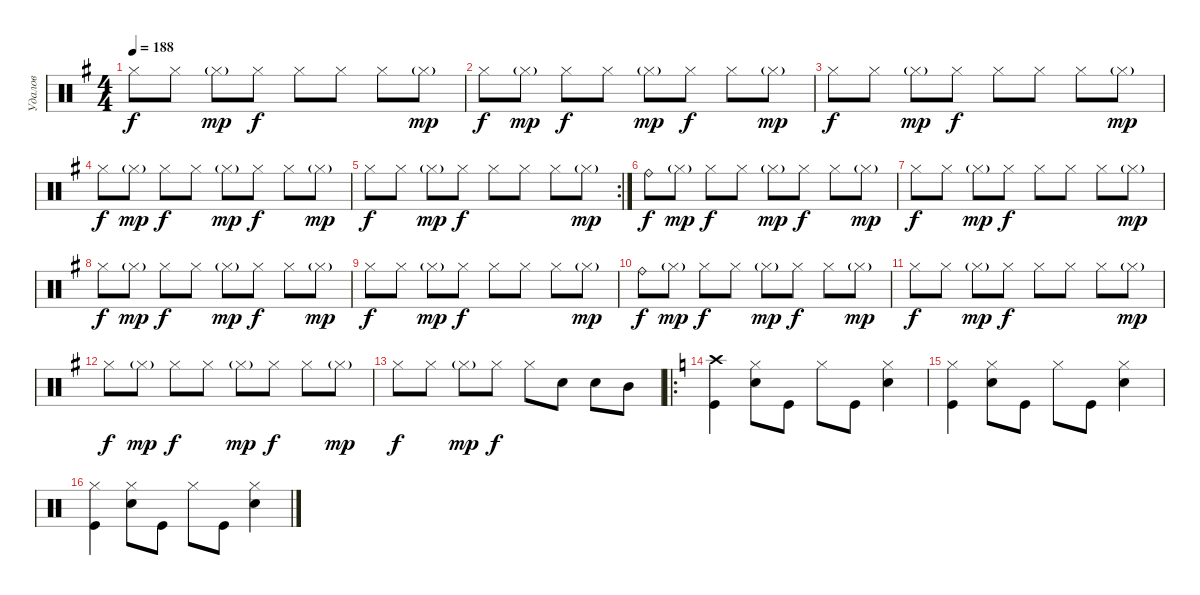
\track ("Удалов" "Удалов") {instrument percussion}
\staff {score}
\articulation defaults
\ts (4 4)
\tempo 188
\clef neutral
\ks g "Hi-Hat (closed)".8{dy f} "Hi-Hat (closed)".8 "Hi-Hat (closed)"{g}.8{dy mp} "Hi-Hat (closed)".8{dy f} "Hi-Hat (closed)".8 "Hi-Hat (closed)".8 "Hi-Hat (closed)".8 "Hi-Hat (closed)"{g}.8{dy mp}
|
"Hi-Hat (closed)".8{dy f} "Hi-Hat (closed)"{g}.8{dy mp} "Hi-Hat (closed)".8{dy f} "Hi-Hat (closed)".8 "Hi-Hat (closed)"{g}.8{dy mp} "Hi-Hat (closed)".8{dy f} "Hi-Hat (closed)".8 "Hi-Hat (closed)"{g}.8{dy mp} |
"Hi-Hat (closed)".8{dy f} "Hi-Hat (closed)".8 "Hi-Hat (closed)"{g}.8{dy mp} "Hi-Hat (closed)".8{dy f} "Hi-Hat (closed)".8 "Hi-Hat (closed)".8 "Hi-Hat (closed)".8 "Hi-Hat (closed)"{g}.8{dy mp} |
"Hi-Hat (closed)".8{dy f} "Hi-Hat (closed)"{g}.8{dy mp} "Hi-Hat (closed)".8{dy f} "Hi-Hat (closed)".8 "Hi-Hat (closed)"{g}.8{dy mp} "Hi-Hat (closed)".8{dy f} "Hi-Hat (closed)".8 "Hi-Hat (closed)"{g}.8{dy mp} |
\rc 2 "Hi-Hat (closed)".8{dy f} "Hi-Hat (closed)".8 "Hi-Hat (closed)"{g}.8{dy mp} "Hi-Hat (closed)".8{dy f} "Hi-Hat (closed)".8 "Hi-Hat (closed)".8 "Hi-Hat (closed)".8 "Hi-Hat (closed)"{g}.8{dy mp}
|
"Ride (bell)".8{dy f} "Hi-Hat (closed)"{g}.8{dy mp} "Hi-Hat (closed)".8{dy f} "Hi-Hat (closed)".8 "Hi-Hat (closed)"{g}.8{dy mp} "Hi-Hat (closed)".8{dy f} "Hi-Hat (closed)".8 "Hi-Hat (closed)"{g}.8{dy mp} |
"Hi-Hat (closed)".8{dy f} "Hi-Hat (closed)".8 "Hi-Hat (closed)"{g}.8{dy mp} "Hi-Hat (closed)".8{dy f} "Hi-Hat (closed)".8 "Hi-Hat (closed)".8 "Hi-Hat (closed)".8 "Hi-Hat (closed)"{g}.8{dy mp} |
"Hi-Hat (closed)".8{dy f} "Hi-Hat (closed)"{g}.8{dy mp} "Hi-Hat (closed)".8{dy f} "Hi-Hat (closed)".8 "Hi-Hat (closed)"{g}.8{dy mp} "Hi-Hat (closed)".8{dy f} "Hi-Hat (closed)".8 "Hi-Hat (closed)"{g}.8{dy mp} |
"Hi-Hat (closed)".8{dy f} "Hi-Hat (closed)".8 "Hi-Hat (closed)"{g}.8{dy mp} "Hi-Hat (closed)".8{dy f} "Hi-Hat (closed)".8 "Hi-Hat (closed)".8 "Hi-Hat (closed)".8 "Hi-Hat (closed)"{g}.8{dy mp} |
"Ride (bell)".8{dy f} "Hi-Hat (closed)"{g}.8{dy mp} "Hi-Hat (closed)".8{dy f} "Hi-Hat (closed)".8 "Hi-Hat (closed)"{g}.8{dy mp} "Hi-Hat (closed)".8{dy f} "Hi-Hat (closed)".8 "Hi-Hat (closed)"{g}.8{dy mp} |
"Hi-Hat (closed)".8{dy f} "Hi-Hat (closed)".8 "Hi-Hat (closed)"{g}.8{dy mp} "Hi-Hat (closed)".8{dy f} "Hi-Hat (closed)".8 "Hi-Hat (closed)".8 "Hi-Hat (closed)".8 "Hi-Hat (closed)"{g}.8{dy mp} |
"Hi-Hat (closed)".8{dy f} "Hi-Hat (closed)"{g}.8{dy mp} "Hi-Hat (closed)".8{dy f} "Hi-Hat (closed)".8 "Hi-Hat (closed)"{g}.8{dy mp} "Hi-Hat (closed)".8{dy f} "Hi-Hat (closed)".8 "Hi-Hat (closed)"{g}.8{dy mp} |
"Hi-Hat (closed)".8{dy f} "Hi-Hat (closed)".8 "Hi-Hat (closed)"{g}.8{dy mp} "Hi-Hat (closed)".8{dy f} "Hi-Hat (closed)".8 "Electric Snare (hit)".8 "Electric Snare (hit)".8 "Mid Tom (hit)".8 |
\ro
\ks c
("Crash high (hit)" "Kick (hit)").4 ("Hi-Hat (closed)" "Electric Snare (hit)").8 "Kick (hit)".8 "Hi-Hat (closed)".8 "Kick (hit)".8 ("Hi-Hat (closed)" "Electric Snare (hit)").4 |
("Hi-Hat (closed)" "Kick (hit)").4 ("Hi-Hat (closed)" "Electric Snare (hit)").8 "Kick (hit)".8 "Hi-Hat (closed)".8 "Kick (hit)".8 ("Hi-Hat (closed)" "Electric Snare (hit)").4 |
("Hi-Hat (closed)" "Kick (hit)").4 ("Hi-Hat (closed)" "Electric Snare (hit)").8 "Kick (hit)".8 "Hi-Hat (closed)".8 "Kick (hit)".8 ("Hi-Hat (closed)" "Electric Snare (hit)").4
